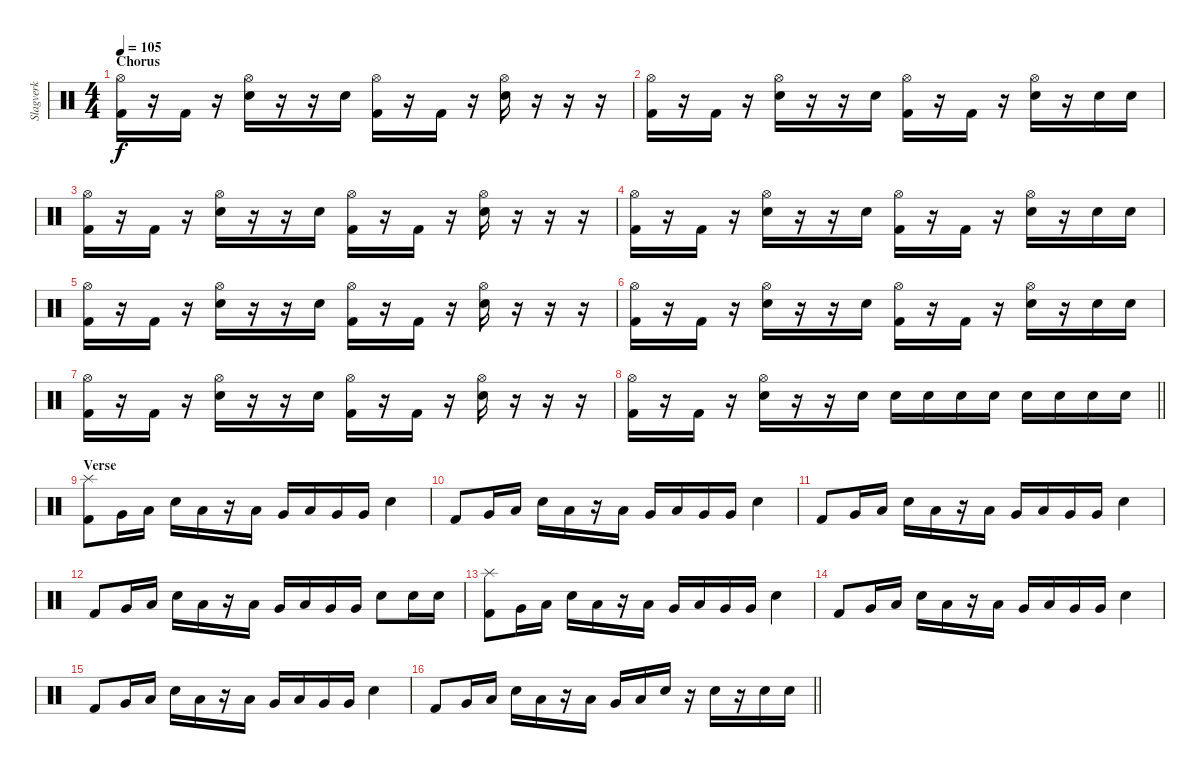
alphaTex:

\track ("Slagverk" "Slagverk") {instrument percussion}
\staff {score}
\articulation defaults
\ts (4 4)
\section ("" "Chorus")
\tempo 105
\clef neutral
\ks c
("Hi-Hat (open)" "Kick (hit) 2").16{dy f} r.16 "Kick (hit) 2".16 r.16 ("Hi-Hat (open)" "Electric Snare (hit)").16 r.16 r.16 "Electric Snare (hit)".16 ("Hi-Hat (open)" "Kick (hit) 2").16 r.16 "Kick (hit) 2".16 r.16 ("Hi-Hat (open)" "Electric Snare (hit)").16 r.16 r.16 r.16 |
("Hi-Hat (open)" "Kick (hit) 2").16 r.16 "Kick (hit) 2".16 r.16 ("Hi-Hat (open)" "Electric Snare (hit)").16 r.16 r.16 "Electric Snare (hit)".16 ("Hi-Hat (open)" "Kick (hit) 2").16 r.16 "Kick (hit) 2".16 r.16 ("Hi-Hat (open)" "Electric Snare (hit)").16 r.16 "Electric Snare (hit)".16 "Electric Snare (hit)".16 |
("Hi-Hat (open)" "Kick (hit) 2").16 r.16 "Kick (hit) 2".16 r.16 ("Hi-Hat (open)" "Electric Snare (hit)").16 r.16 r.16 "Electric Snare (hit)".16 ("Hi-Hat (open)" "Kick (hit) 2").16 r.16 "Kick (hit) 2".16 r.16 ("Hi-Hat (open)" "Electric Snare (hit)").16 r.16 r.16 r.16 |
("Hi-Hat (open)" "Kick (hit) 2").16 r.16 "Kick (hit) 2".16 r.16 ("Hi-Hat (open)" "Electric Snare (hit)").16 r.16 r.16 "Electric Snare (hit)".16 ("Hi-Hat (open)" "Kick (hit) 2").16 r.16 "Kick (hit) 2".16 r.16 ("Hi-Hat (open)" "Electric Snare (hit)").16 r.16 "Electric Snare (hit)".16 "Electric Snare (hit)".16 |
("Hi-Hat (open)" "Kick (hit) 2").16 r.16 "Kick (hit) 2".16 r.16 ("Hi-Hat (open)" "Electric Snare (hit)").16 r.16 r.16 "Electric Snare (hit)".16 ("Hi-Hat (open)" "Kick (hit) 2").16 r.16 "Kick (hit) 2".16 r.16 ("Hi-Hat (open)" "Electric Snare (hit)").16 r.16 r.16 r.16 |
("Hi-Hat (open)" "Kick (hit) 2").16 r.16 "Kick (hit) 2".16 r.16 ("Hi-Hat (open)" "Electric Snare (hit)").16 r.16 r.16 "Electric Snare (hit)".16 ("Hi-Hat (open)" "Kick (hit) 2").16 r.16 "Kick (hit) 2".16 r.16 ("Hi-Hat (open)" "Electric Snare (hit)").16 r.16 "Electric Snare (hit)".16 "Electric Snare (hit)".16 |
("Hi-Hat (open)" "Kick (hit) 2").16 r.16 "Kick (hit) 2".16 r.16 ("Hi-Hat (open)" "Electric Snare (hit)").16 r.16 r.16 "Electric Snare (hit)".16 ("Hi-Hat (open)" "Kick (hit) 2").16 r.16 "Kick (hit) 2".16 r.16 ("Hi-Hat (open)" "Electric Snare (hit)").16 r.16 r.16 r.16 |
\barLineRight lightlight
("Hi-Hat (open)" "Kick (hit) 2").16 r.16 "Kick (hit) 2".16 r.16 ("Hi-Hat (open)" "Electric Snare (hit)").16 r.16 r.16 "Electric Snare (hit)".16 "Electric Snare (hit)".16 "Electric Snare (hit)".16 "Electric Snare (hit)".16 "Electric Snare (hit)".16 "Electric Snare (hit)".16 "Electric Snare (hit)".16 "Electric Snare (hit)".16 "Electric Snare (hit)".16 |
\section ("" "Verse")
("Kick (hit) 2" "Splash (hit)").8 "Very Low Tom (hit)".16 "Low Tom (hit)".16 "Electric Snare (hit)".16 "Low Tom (hit)".16 r.16 "Low Tom (hit)".16 "Very Low Tom (hit)".16 "Low Tom (hit)".16 "Very Low Tom (hit)".16 "Very Low Tom (hit)".16 "Electric Snare (hit)".4 |
"Kick (hit) 2".8 "Very Low Tom (hit)".16 "Low Tom (hit)".16 "Electric Snare (hit)".16 "Low Tom (hit)".16 r.16 "Low Tom (hit)".16 "Very Low Tom (hit)".16 "Low Tom (hit)".16 "Very Low Tom (hit)".16 "Very Low Tom (hit)".16 "Electric Snare (hit)".4 |
"Kick (hit) 2".8 "Very Low Tom (hit)".16 "Low Tom (hit)".16 "Electric Snare (hit)".16 "Low Tom (hit)".16 r.16 "Low Tom (hit)".16 "Very Low Tom (hit)".16 "Low Tom (hit)".16 "Very Low Tom (hit)".16 "Very Low Tom (hit)".16 "Electric Snare (hit)".4 |
"Kick (hit) 2".8 "Very Low Tom (hit)".16 "Low Tom (hit)".16 "Electric Snare (hit)".16 "Low Tom (hit)".16 r.16 "Low Tom (hit)".16 "Very Low Tom (hit)".16 "Low Tom (hit)".16 "Very Low Tom (hit)".16 "Very Low Tom (hit)".16 "Electric Snare (hit)".8 "Electric Snare (hit)".16 "Electric Snare (hit)".16 |
("Kick (hit) 2" "Splash (hit)").8 "Very Low Tom (hit)".16 "Low Tom (hit)".16 "Electric Snare (hit)".16 "Low Tom (hit)".16 r.16 "Low Tom (hit)".16 "Very Low Tom (hit)".16 "Low Tom (hit)".16 "Very Low Tom (hit)".16 "Very Low Tom (hit)".16 "Electric Snare (hit)".4 |
"Kick (hit) 2".8 "Very Low Tom (hit)".16 "Low Tom (hit)".16 "Electric Snare (hit)".16 "Low Tom (hit)".16 r.16 "Low Tom (hit)".16 "Very Low Tom (hit)".16 "Low Tom (hit)".16 "Very Low Tom (hit)".16 "Very Low Tom (hit)".16 "Electric Snare (hit)".4 |
"Kick (hit) 2".8 "Very Low Tom (hit)".16 "Low Tom (hit)".16 "Electric Snare (hit)".16 "Low Tom (hit)".16 r.16 "Low Tom (hit)".16 "Very Low Tom (hit)".16 "Low Tom (hit)".16 "Very Low Tom (hit)".16 "Very Low Tom (hit)".16 "Electric Snare (hit)".4 |
\barLineRight lightlight "Kick (hit) 2".8 "Very Low Tom (hit)".16 "Low Tom (hit)".16 "Electric Snare (hit)".16 "Low Tom (hit)".16
r.16 "Low Tom (hit)".16 "Very Low Tom (hit)".16 "Low Tom (hit)".16 "Electric Snare (hit)".16 r.16 "Electric Snare (hit)".16 r.16 "Electric Snare (hit)".16 "Electric Snare (hit)".16
